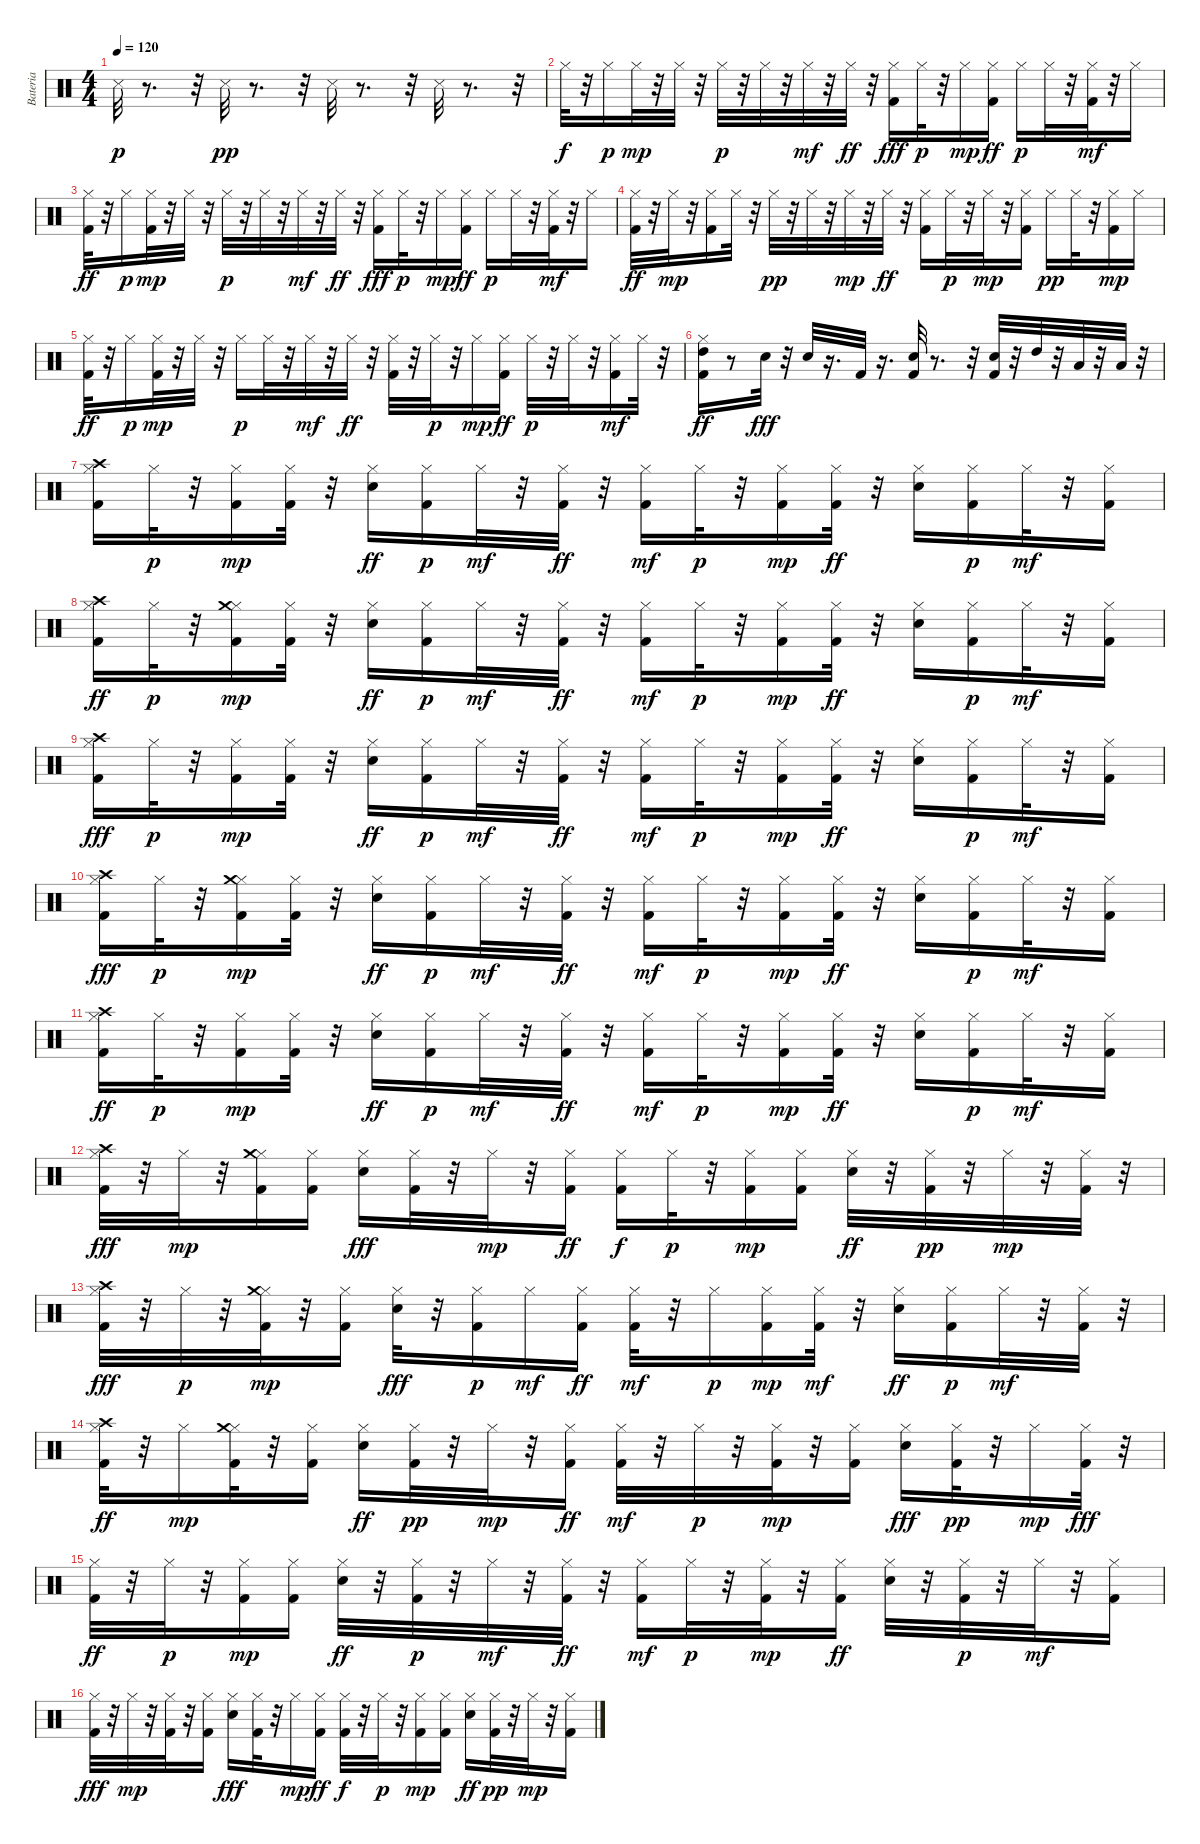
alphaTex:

\track ("Bateria" "Bateria") {instrument percussion}
\staff {score}
\articulation defaults
\ts (4 4)
\tempo 120
\clef neutral
\ks c "Snare (side stick) 3".32{dy p}
r.8{d} r.32 "Snare (side stick) 3".32{dy pp} r.8{d} r.32 "Snare (side stick) 3".32 r.8{d} r.32 "Snare (side stick) 3".32 r.8{d} r.32 |
"Hi-Hat (closed)".32{dy f} r.32 "Hi-Hat (closed)".16{dy p} "Hi-Hat (closed)".32{dy mp} r.32 "Hi-Hat (closed)".32 r.32 "Hi-Hat (closed)".32{dy p} r.32 "Hi-Hat (closed)".32 r.32 "Hi-Hat (closed)".32{dy mf} r.32 "Hi-Hat (closed)".32{dy ff} r.32 ("Hi-Hat (closed)" "Kick (hit) 2").16{dy fff} "Hi-Hat (closed)".32{dy p} r.32 "Hi-Hat (closed)".16{dy mp} ("Kick (hit) 2" "Hi-Hat (closed)").16{dy ff} "Hi-Hat (closed)".16{dy p} "Hi-Hat (closed)".32 r.32 ("Kick (hit) 2" "Hi-Hat (closed)").32{dy mf} r.32 "Hi-Hat (closed)".16 |
("Kick (hit) 2" "Hi-Hat (closed)").32{dy ff} r.32 "Hi-Hat (closed)".16{dy p} ("Kick (hit) 2" "Hi-Hat (closed)").32{dy mp} r.32 "Hi-Hat (closed)".32 r.32 "Hi-Hat (closed)".32{dy p} r.32 "Hi-Hat (closed)".32 r.32 "Hi-Hat (closed)".32{dy mf} r.32 "Hi-Hat (closed)".32{dy ff} r.32 ("Hi-Hat (closed)" "Kick (hit) 2").16{dy fff} "Hi-Hat (closed)".32{dy p} r.32 "Hi-Hat (closed)".16{dy mp} ("Kick (hit) 2" "Hi-Hat (closed)").16{dy ff} "Hi-Hat (closed)".16{dy p} "Hi-Hat (closed)".32 r.32 ("Kick (hit) 2" "Hi-Hat (closed)").32{dy mf} r.32 "Hi-Hat (closed)".16 |
("Kick (hit) 2" "Hi-Hat (closed)").32{dy ff} r.32 "Hi-Hat (closed)".32{dy mp} r.32 ("Kick (hit) 2" "Hi-Hat (closed)").16 "Hi-Hat (closed)".32 r.32 "Hi-Hat (closed)".32{dy pp} r.32 "Hi-Hat (closed)".32 r.32 "Hi-Hat (closed)".32{dy mp} r.32 "Hi-Hat (closed)".32{dy ff} r.32 ("Kick (hit) 2" "Hi-Hat (closed)").16 "Hi-Hat (closed)".32{dy p} r.32 "Hi-Hat (closed)".32{dy mp} r.32 ("Kick (hit) 2" "Hi-Hat (closed)").16 "Hi-Hat (closed)".16{dy pp} "Hi-Hat (closed)".32 r.32 ("Kick (hit) 2" "Hi-Hat (closed)").16{dy mp} "Hi-Hat (closed)".16 |
("Kick (hit) 2" "Hi-Hat (closed)").32{dy ff} r.32 "Hi-Hat (closed)".16{dy p} ("Kick (hit) 2" "Hi-Hat (closed)").32{dy mp} r.32 "Hi-Hat (closed)".32 r.32 "Hi-Hat (closed)".16{dy p} "Hi-Hat (closed)".32 r.32 "Hi-Hat (closed)".32{dy mf} r.32 "Hi-Hat (closed)".32{dy ff} r.32 ("Kick (hit) 2" "Hi-Hat (closed)").32 r.32 "Hi-Hat (closed)".32{dy p} r.32 "Hi-Hat (closed)".16{dy mp} ("Kick (hit) 2" "Hi-Hat (closed)").16{dy ff} "Hi-Hat (closed)".32{dy p} r.32 "Hi-Hat (closed)".32 r.32 ("Kick (hit) 2" "Hi-Hat (closed)").16{dy mf} "Hi-Hat (closed)".32 r.32 |
("High Tom (hit)" "Kick (hit) 2" "Hi-Hat (closed)").16{dy ff} r.8 "Snare (hit) 2".32{dy fff} r.32 "Snare (hit) 2".32 r.16{d} "Kick (hit) 2".32 r.16{d} ("Kick (hit) 2" "Snare (hit) 2").32 r.8{d} r.32 ("Kick (hit) 2" "Snare (hit) 2").32 r.32 "High Tom (hit)".32 r.32 "Low Tom (hit)".32 r.32 "Low Floor Tom (hit)".32 r.32 |
("Kick (hit) 2" "Hi-Hat (closed)" "Crash high (hit)").16 "Hi-Hat (closed)".32{dy p} r.32 ("Kick (hit) 2" "Hi-Hat (closed)").16{dy mp} ("Kick (hit) 2" "Hi-Hat (closed)").32 r.32 ("Hi-Hat (closed)" "Snare (hit) 2").16{dy ff} ("Kick (hit) 2" "Hi-Hat (closed)").16{dy p} "Hi-Hat (closed)".32{dy mf} r.32 ("Kick (hit) 2" "Hi-Hat (closed)").32{dy ff} r.32 ("Kick (hit) 2" "Hi-Hat (closed)").16{dy mf} "Hi-Hat (closed)".32{dy p} r.32 ("Kick (hit) 2" "Hi-Hat (closed)").16{dy mp} ("Kick (hit) 2" "Hi-Hat (closed)").32{dy ff} r.32 ("Hi-Hat (closed)" "Snare (hit) 2").16 ("Kick (hit) 2" "Hi-Hat (closed)").16{dy p} "Hi-Hat (closed)".32{dy mf} r.32 ("Kick (hit) 2" "Hi-Hat (closed)").16 |
("Kick (hit) 2" "Hi-Hat (closed)" "Crash high (hit)").16{dy ff} "Hi-Hat (closed)".32{dy p} r.32 ("Kick (hit) 2" "Hi-Hat (closed)" "Crash medium (hit)").16{dy mp} ("Kick (hit) 2" "Hi-Hat (closed)").32 r.32 ("Hi-Hat (closed)" "Snare (hit) 2").16{dy ff} ("Kick (hit) 2" "Hi-Hat (closed)").16{dy p} "Hi-Hat (closed)".32{dy mf} r.32 ("Kick (hit) 2" "Hi-Hat (closed)").32{dy ff} r.32 ("Kick (hit) 2" "Hi-Hat (closed)").16{dy mf} "Hi-Hat (closed)".32{dy p} r.32 ("Kick (hit) 2" "Hi-Hat (closed)").16{dy mp} ("Kick (hit) 2" "Hi-Hat (closed)").32{dy ff} r.32 ("Hi-Hat (closed)" "Snare (hit) 2").16 ("Kick (hit) 2" "Hi-Hat (closed)").16{dy p} "Hi-Hat (closed)".32{dy mf} r.32 ("Kick (hit) 2" "Hi-Hat (closed)").16 |
("Kick (hit) 2" "Hi-Hat (closed)" "Crash high (hit)").16{dy fff} "Hi-Hat (closed)".32{dy p} r.32 ("Kick (hit) 2" "Hi-Hat (closed)").16{dy mp} ("Kick (hit) 2" "Hi-Hat (closed)").32 r.32 ("Hi-Hat (closed)" "Snare (hit) 2").16{dy ff} ("Kick (hit) 2" "Hi-Hat (closed)").16{dy p} "Hi-Hat (closed)".32{dy mf} r.32 ("Kick (hit) 2" "Hi-Hat (closed)").32{dy ff} r.32 ("Kick (hit) 2" "Hi-Hat (closed)").16{dy mf} "Hi-Hat (closed)".32{dy p} r.32 ("Kick (hit) 2" "Hi-Hat (closed)").16{dy mp} ("Kick (hit) 2" "Hi-Hat (closed)").32{dy ff} r.32 ("Hi-Hat (closed)" "Snare (hit) 2").16 ("Kick (hit) 2" "Hi-Hat (closed)").16{dy p} "Hi-Hat (closed)".32{dy mf} r.32 ("Kick (hit) 2" "Hi-Hat (closed)").16 |
("Kick (hit) 2" "Hi-Hat (closed)" "Crash high (hit)").16{dy fff} "Hi-Hat (closed)".32{dy p} r.32 ("Kick (hit) 2" "Hi-Hat (closed)" "Crash medium (hit)").16{dy mp} ("Kick (hit) 2" "Hi-Hat (closed)").32 r.32 ("Hi-Hat (closed)" "Snare (hit) 2").16{dy ff} ("Kick (hit) 2" "Hi-Hat (closed)").16{dy p} "Hi-Hat (closed)".32{dy mf} r.32 ("Kick (hit) 2" "Hi-Hat (closed)").32{dy ff} r.32 ("Kick (hit) 2" "Hi-Hat (closed)").16{dy mf} "Hi-Hat (closed)".32{dy p} r.32 ("Kick (hit) 2" "Hi-Hat (closed)").16{dy mp} ("Kick (hit) 2" "Hi-Hat (closed)").32{dy ff} r.32 ("Hi-Hat (closed)" "Snare (hit) 2").16 ("Kick (hit) 2" "Hi-Hat (closed)").16{dy p} "Hi-Hat (closed)".32{dy mf} r.32 ("Kick (hit) 2" "Hi-Hat (closed)").16 |
("Kick (hit) 2" "Hi-Hat (closed)" "Crash high (hit)").16{dy ff} "Hi-Hat (closed)".32{dy p} r.32 ("Kick (hit) 2" "Hi-Hat (closed)").16{dy mp} ("Kick (hit) 2" "Hi-Hat (closed)").32 r.32 ("Hi-Hat (closed)" "Snare (hit) 2").16{dy ff} ("Kick (hit) 2" "Hi-Hat (closed)").16{dy p} "Hi-Hat (closed)".32{dy mf} r.32 ("Kick (hit) 2" "Hi-Hat (closed)").32{dy ff} r.32 ("Kick (hit) 2" "Hi-Hat (closed)").16{dy mf} "Hi-Hat (closed)".32{dy p} r.32 ("Kick (hit) 2" "Hi-Hat (closed)").16{dy mp} ("Kick (hit) 2" "Hi-Hat (closed)").32{dy ff} r.32 ("Hi-Hat (closed)" "Snare (hit) 2").16 ("Kick (hit) 2" "Hi-Hat (closed)").16{dy p} "Hi-Hat (closed)".32{dy mf} r.32 ("Kick (hit) 2" "Hi-Hat (closed)").16 |
("Hi-Hat (closed)" "Kick (hit) 2" "Crash high (hit)").32{dy fff} r.32 "Hi-Hat (closed)".32{dy mp} r.32 ("Kick (hit) 2" "Hi-Hat (closed)" "Crash medium (hit)").16 ("Kick (hit) 2" "Hi-Hat (closed)").16 ("Hi-Hat (closed)" "Snare (hit) 2").16{dy fff} ("Hi-Hat (closed)" "Kick (hit) 2").32 r.32 "Hi-Hat (closed)".32{dy mp} r.32 ("Kick (hit) 2" "Hi-Hat (closed)").16{dy ff} ("Hi-Hat (closed)" "Kick (hit) 2").16{dy f} "Hi-Hat (closed)".32{dy p} r.32 ("Kick (hit) 2" "Hi-Hat (closed)").16{dy mp} ("Kick (hit) 2" "Hi-Hat (closed)").16 ("Hi-Hat (closed)" "Snare (hit) 2").32{dy ff} r.32 ("Kick (hit) 2" "Hi-Hat (closed)").32{dy pp} r.32 "Hi-Hat (closed)".32{dy mp} r.32 ("Kick (hit) 2" "Hi-Hat (closed)").32 r.32 |
("Hi-Hat (closed)" "Kick (hit) 2" "Crash high (hit)").32{dy fff} r.32 "Hi-Hat (closed)".32{dy p} r.32 ("Kick (hit) 2" "Hi-Hat (closed)" "Crash medium (hit)").32{dy mp} r.32 ("Kick (hit) 2" "Hi-Hat (closed)").16 ("Hi-Hat (closed)" "Snare (hit) 2").32{dy fff} r.32 ("Kick (hit) 2" "Hi-Hat (closed)").16{dy p} "Hi-Hat (closed)".16{dy mf} ("Hi-Hat (closed)" "Kick (hit) 2").16{dy ff} ("Kick (hit) 2" "Hi-Hat (closed)").32{dy mf} r.32 "Hi-Hat (closed)".16{dy p} ("Kick (hit) 2" "Hi-Hat (closed)").16{dy mp} ("Hi-Hat (closed)" "Kick (hit) 2").32{dy mf} r.32 ("Hi-Hat (closed)" "Snare (hit) 2").16{dy ff} ("Kick (hit) 2" "Hi-Hat (closed)").16{dy p} "Hi-Hat (closed)".32{dy mf} r.32 ("Kick (hit) 2" "Hi-Hat (closed)").32 r.32 |
("Kick (hit) 2" "Hi-Hat (closed)" "Crash high (hit)").32{dy ff} r.32 "Hi-Hat (closed)".16{dy mp} ("Kick (hit) 2" "Hi-Hat (closed)" "Crash medium (hit)").32 r.32 ("Kick (hit) 2" "Hi-Hat (closed)").16 ("Hi-Hat (closed)" "Snare (hit) 2").16{dy ff} ("Kick (hit) 2" "Hi-Hat (closed)").32{dy pp} r.32 "Hi-Hat (closed)".32{dy mp} r.32 ("Kick (hit) 2" "Hi-Hat (closed)").16{dy ff} ("Kick (hit) 2" "Hi-Hat (closed)").32{dy mf} r.32 "Hi-Hat (closed)".32{dy p} r.32 ("Kick (hit) 2" "Hi-Hat (closed)").32{dy mp} r.32 ("Kick (hit) 2" "Hi-Hat (closed)").16 ("Hi-Hat (closed)" "Snare (hit) 2").16{dy fff} ("Kick (hit) 2" "Hi-Hat (closed)").32{dy pp} r.32 "Hi-Hat (closed)".16{dy mp} ("Hi-Hat (closed)" "Kick (hit) 2").32{dy fff} r.32 |
("Kick (hit) 2" "Hi-Hat (closed)").32{dy ff} r.32 "Hi-Hat (closed)".32{dy p} r.32 ("Kick (hit) 2" "Hi-Hat (closed)").16{dy mp} ("Kick (hit) 2" "Hi-Hat (closed)").16 ("Hi-Hat (closed)" "Snare (hit) 2").32{dy ff} r.32 ("Kick (hit) 2" "Hi-Hat (closed)").32{dy p} r.32 "Hi-Hat (closed)".32{dy mf} r.32 ("Kick (hit) 2" "Hi-Hat (closed)").32{dy ff} r.32 ("Kick (hit) 2" "Hi-Hat (closed)").16{dy mf} "Hi-Hat (closed)".32{dy p} r.32 ("Kick (hit) 2" "Hi-Hat (closed)").32{dy mp} r.32 ("Kick (hit) 2" "Hi-Hat (closed)").16{dy ff} ("Hi-Hat (closed)" "Snare (hit) 2").32 r.32 ("Kick (hit) 2" "Hi-Hat (closed)").32{dy p} r.32 "Hi-Hat (closed)".32{dy mf} r.32 ("Kick (hit) 2" "Hi-Hat (closed)").16 |
("Hi-Hat (closed)" "Kick (hit) 2").32{dy fff} r.32 "Hi-Hat (closed)".32{dy mp} r.32 ("Kick (hit) 2" "Hi-Hat (closed)").32 r.32 ("Kick (hit) 2" "Hi-Hat (closed)").16 ("Hi-Hat (closed)" "Snare (hit) 2").16{dy fff} ("Hi-Hat (closed)" "Kick (hit) 2").32 r.32 "Hi-Hat (closed)".16{dy mp} ("Kick (hit) 2" "Hi-Hat (closed)").16{dy ff} ("Hi-Hat (closed)" "Kick (hit) 2").32{dy f} r.32 "Hi-Hat (closed)".32{dy p} r.32 ("Kick (hit) 2" "Hi-Hat (closed)").16{dy mp} ("Kick (hit) 2" "Hi-Hat (closed)").16 ("Hi-Hat (closed)" "Snare (hit) 2").16{dy ff} ("Kick (hit) 2" "Hi-Hat (closed)").32{dy pp} r.32 "Hi-Hat (closed)".32{dy mp} r.32 ("Kick (hit) 2" "Hi-Hat (closed)").16
